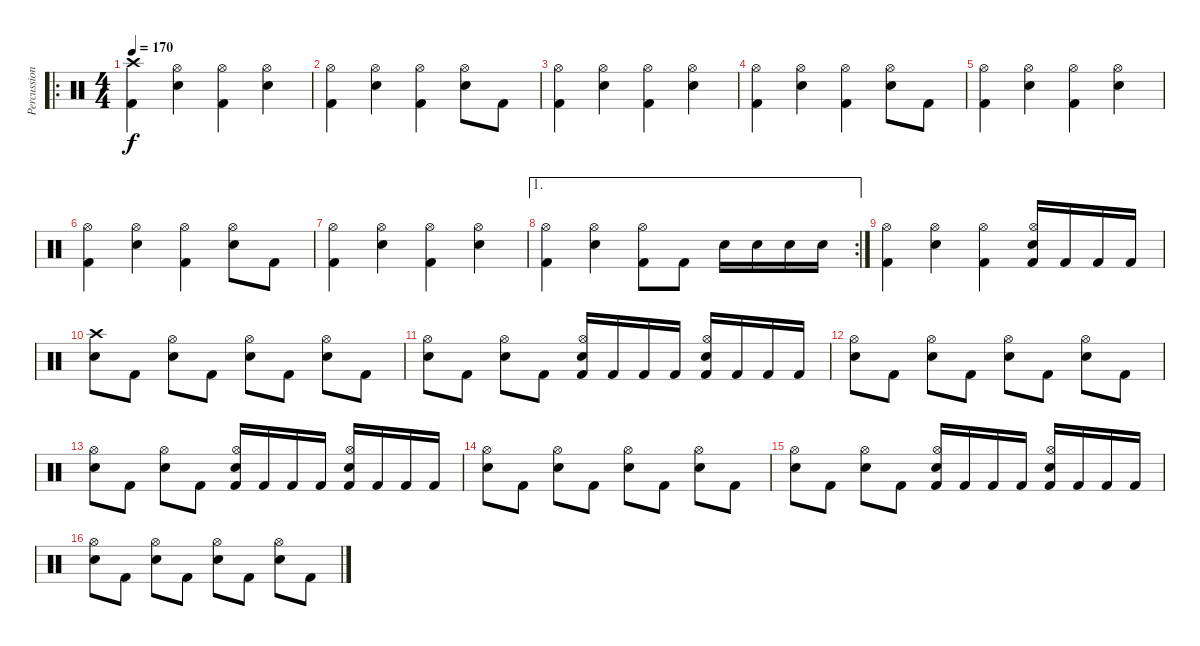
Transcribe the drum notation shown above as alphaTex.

\track ("Percussion" "Percussion") {instrument percussion}
\staff {score}
\articulation defaults
\ro
\ts (4 4)
\tempo 170
\clef neutral
\ks c
("Crash high (hit)" "Kick (hit) 2").4{dy f} ("Hi-Hat (open)" "Snare (hit) 2").4 ("Hi-Hat (open)" "Kick (hit) 2").4 ("Hi-Hat (open)" "Snare (hit) 2").4 |
("Hi-Hat (open)" "Kick (hit) 2").4 ("Hi-Hat (open)" "Snare (hit) 2").4 ("Hi-Hat (open)" "Kick (hit) 2").4 ("Hi-Hat (open)" "Snare (hit) 2").8 "Kick (hit) 2".8 |
("Hi-Hat (open)" "Kick (hit) 2").4 ("Hi-Hat (open)" "Snare (hit) 2").4 ("Hi-Hat (open)" "Kick (hit) 2").4 ("Hi-Hat (open)" "Snare (hit) 2").4 |
("Hi-Hat (open)" "Kick (hit) 2").4 ("Hi-Hat (open)" "Snare (hit) 2").4 ("Hi-Hat (open)" "Kick (hit) 2").4 ("Hi-Hat (open)" "Snare (hit) 2").8 "Kick (hit) 2".8 |
("Hi-Hat (open)" "Kick (hit) 2").4 ("Hi-Hat (open)" "Snare (hit) 2").4 ("Hi-Hat (open)" "Kick (hit) 2").4 ("Hi-Hat (open)" "Snare (hit) 2").4 |
("Hi-Hat (open)" "Kick (hit) 2").4 ("Hi-Hat (open)" "Snare (hit) 2").4 ("Hi-Hat (open)" "Kick (hit) 2").4 ("Hi-Hat (open)" "Snare (hit) 2").8 "Kick (hit) 2".8 |
("Hi-Hat (open)" "Kick (hit) 2").4 ("Hi-Hat (open)" "Snare (hit) 2").4 ("Hi-Hat (open)" "Kick (hit) 2").4 ("Hi-Hat (open)" "Snare (hit) 2").4 |
\ae 1
\rc 2
("Hi-Hat (open)" "Kick (hit) 2").4 ("Hi-Hat (open)" "Snare (hit) 2").4 ("Hi-Hat (open)" "Kick (hit) 2").8 "Kick (hit) 2".8 "Snare (hit) 2".16 "Snare (hit) 2".16 "Snare (hit) 2".16 "Snare (hit) 2".16 |
("Hi-Hat (open)" "Kick (hit) 2").4 ("Hi-Hat (open)" "Snare (hit) 2").4 ("Hi-Hat (open)" "Kick (hit) 2").4 ("Hi-Hat (open)" "Snare (hit) 2" "Kick (hit) 2").16 "Kick (hit) 2".16 "Kick (hit) 2".16 "Kick (hit) 2".16 |
("Crash high (hit)" "Snare (hit) 2").8 "Kick (hit) 2".8 ("Hi-Hat (open)" "Snare (hit) 2").8 "Kick (hit) 2".8 ("Hi-Hat (open)" "Snare (hit) 2").8 "Kick (hit) 2".8 ("Hi-Hat (open)" "Snare (hit) 2").8 "Kick (hit) 2".8 |
("Hi-Hat (open)" "Snare (hit) 2").8 "Kick (hit) 2".8 ("Hi-Hat (open)" "Snare (hit) 2").8 "Kick (hit) 2".8 ("Hi-Hat (open)" "Snare (hit) 2" "Kick (hit) 2").16 "Kick (hit) 2".16 "Kick (hit) 2".16 "Kick (hit) 2".16 ("Hi-Hat (open)" "Snare (hit) 2" "Kick (hit) 2").16 "Kick (hit) 2".16 "Kick (hit) 2".16 "Kick (hit) 2".16 |
("Hi-Hat (open)" "Snare (hit) 2").8 "Kick (hit) 2".8 ("Hi-Hat (open)" "Snare (hit) 2").8 "Kick (hit) 2".8 ("Hi-Hat (open)" "Snare (hit) 2").8 "Kick (hit) 2".8 ("Hi-Hat (open)" "Snare (hit) 2").8 "Kick (hit) 2".8 |
("Hi-Hat (open)" "Snare (hit) 2").8 "Kick (hit) 2".8 ("Hi-Hat (open)" "Snare (hit) 2").8 "Kick (hit) 2".8 ("Hi-Hat (open)" "Snare (hit) 2" "Kick (hit) 2").16 "Kick (hit) 2".16 "Kick (hit) 2".16 "Kick (hit) 2".16 ("Hi-Hat (open)" "Snare (hit) 2" "Kick (hit) 2").16 "Kick (hit) 2".16 "Kick (hit) 2".16 "Kick (hit) 2".16 |
("Hi-Hat (open)" "Snare (hit) 2").8 "Kick (hit) 2".8 ("Hi-Hat (open)" "Snare (hit) 2").8 "Kick (hit) 2".8 ("Hi-Hat (open)" "Snare (hit) 2").8 "Kick (hit) 2".8 ("Hi-Hat (open)" "Snare (hit) 2").8 "Kick (hit) 2".8 |
("Hi-Hat (open)" "Snare (hit) 2").8 "Kick (hit) 2".8 ("Hi-Hat (open)" "Snare (hit) 2").8 "Kick (hit) 2".8 ("Hi-Hat (open)" "Snare (hit) 2" "Kick (hit) 2").16 "Kick (hit) 2".16 "Kick (hit) 2".16 "Kick (hit) 2".16 ("Hi-Hat (open)" "Snare (hit) 2" "Kick (hit) 2").16 "Kick (hit) 2".16 "Kick (hit) 2".16 "Kick (hit) 2".16 |
("Hi-Hat (open)" "Snare (hit) 2").8 "Kick (hit) 2".8 ("Hi-Hat (open)" "Snare (hit) 2").8 "Kick (hit) 2".8 ("Hi-Hat (open)" "Snare (hit) 2").8 "Kick (hit) 2".8 ("Hi-Hat (open)" "Snare (hit) 2").8 "Kick (hit) 2".8
